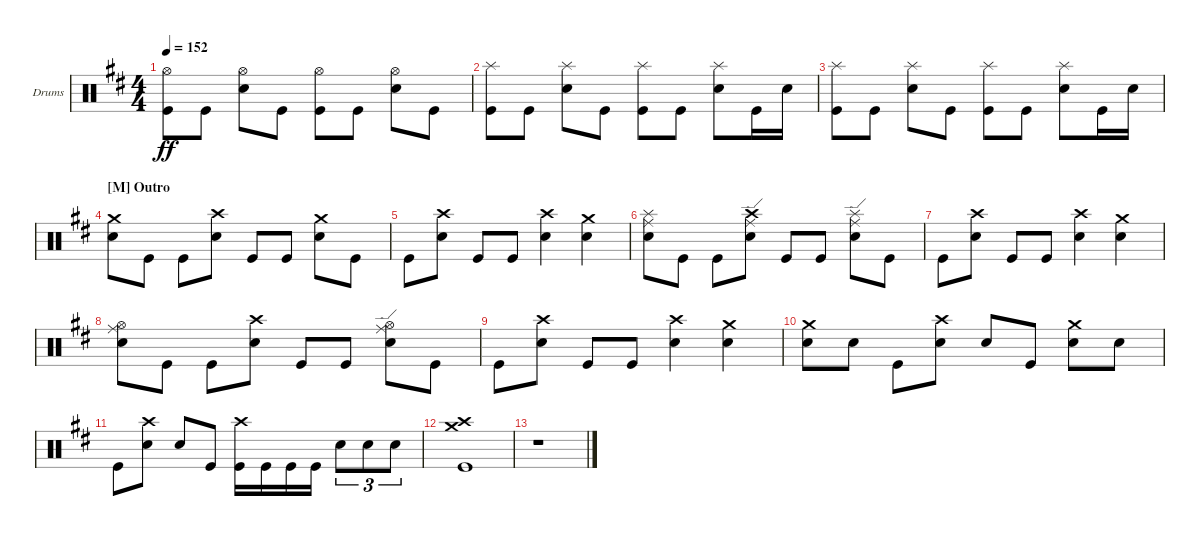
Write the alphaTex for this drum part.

\defaultSystemsLayout 4
\bracketExtendMode groupsimilarinstruments
\firstSystemTrackNameOrientation horizontal
\otherSystemsTrackNameOrientation horizontal
\track ("Drumkit" "Drums") {instrument percussion}
\staff {score}
\articulation defaults
\ts (4 4)
\tempo 152
\clef neutral
\ks d
("Kick (hit)" "Hi-Hat (open)").8{dy ff} "Kick (hit)".8 ("Snare (hit) 2" "Hi-Hat (open)").8 "Kick (hit)".8 ("Kick (hit)" "Hi-Hat (open)").8 "Kick (hit)".8 ("Snare (hit) 2" "Hi-Hat (open)").8 "Kick (hit)".8 |
("Kick (hit)" "Splash (hit)").8 "Kick (hit)".8 ("Snare (hit) 2" "Splash (hit)").8 "Kick (hit)".8 ("Kick (hit)" "Splash (hit)").8 "Kick (hit)".8 ("Snare (hit) 2" "Splash (hit)").8 "Kick (hit)".16 "Snare (hit) 2".16 |
("Kick (hit)" "Splash (hit)").8 "Kick (hit)".8 ("Snare (hit) 2" "Splash (hit)").8 "Kick (hit)".8 ("Kick (hit)" "Splash (hit)").8 "Kick (hit)".8 ("Snare (hit) 2" "Splash (hit)").8 "Kick (hit)".16 "Snare (hit) 2".16 |
\section ("M" "Outro")
("Snare (hit) 2" "Crash medium (hit)").8 "Kick (hit)".8 "Kick (hit)".8 ("Snare (hit) 2" "Crash high (hit)").8 "Kick (hit)".8 "Kick (hit)".8 ("Snare (hit) 2" "Crash medium (hit)").8 "Kick (hit)".8 |
"Kick (hit)".8 ("Snare (hit) 2" "Crash high (hit)").8 "Kick (hit)".8 "Kick (hit)".8 ("Snare (hit) 2" "Crash high (hit)").4 ("Snare (hit) 2" "Crash medium (hit)").4 |
("Snare (hit) 2" "Splash (hit)" "Ride (middle)").8 "Kick (hit)".8 "Kick (hit)".8 ("Snare (hit) 2" "Crash high (hit)" "Ride (edge)").8 "Kick (hit)".8 "Kick (hit)".8 ("Snare (hit) 2" "Splash (hit)" "Ride (edge)").8 "Kick (hit)".8 |
"Kick (hit)".8 ("Snare (hit) 2" "Crash high (hit)").8 "Kick (hit)".8 "Kick (hit)".8 ("Snare (hit) 2" "Crash high (hit)").4 ("Snare (hit) 2" "Crash medium (hit)").4 |
("Snare (hit) 2" "Hi-Hat (open)" "Ride (middle)").8 "Kick (hit)".8 "Kick (hit)".8 ("Snare (hit) 2" "Crash high (hit)").8 "Kick (hit)".8 "Kick (hit)".8 ("Hi-Hat (open)" "Ride (edge)" "Snare (hit) 2").8 "Kick (hit)".8 |
"Kick (hit)".8 ("Snare (hit) 2" "Crash high (hit)").8 "Kick (hit)".8 "Kick (hit)".8 ("Snare (hit) 2" "Crash high (hit)").4 ("Snare (hit) 2" "Crash medium (hit)").4 |
("Snare (hit) 2" "Crash medium (hit)").8 "Snare (hit) 2".8 "Kick (hit)".8 ("Snare (hit) 2" "Crash high (hit)").8 "Snare (hit) 2".8 "Kick (hit)".8 ("Snare (hit) 2" "Crash medium (hit)").8 "Snare (hit) 2".8 |
"Kick (hit)".8 ("Snare (hit) 2" "Crash high (hit)").8 "Snare (hit) 2".8 "Kick (hit)".8 ("Kick (hit)" "Crash high (hit)").16 "Kick (hit)".16 "Kick (hit)".16 "Kick (hit)".16 "Snare (hit) 2".8{tu (3 2)} "Snare (hit) 2".8{tu (3 2)} "Snare (hit) 2".8{tu (3 2)} |
("Kick (hit)" "Crash medium (hit)" "Crash high (hit)").1 |
r.1
